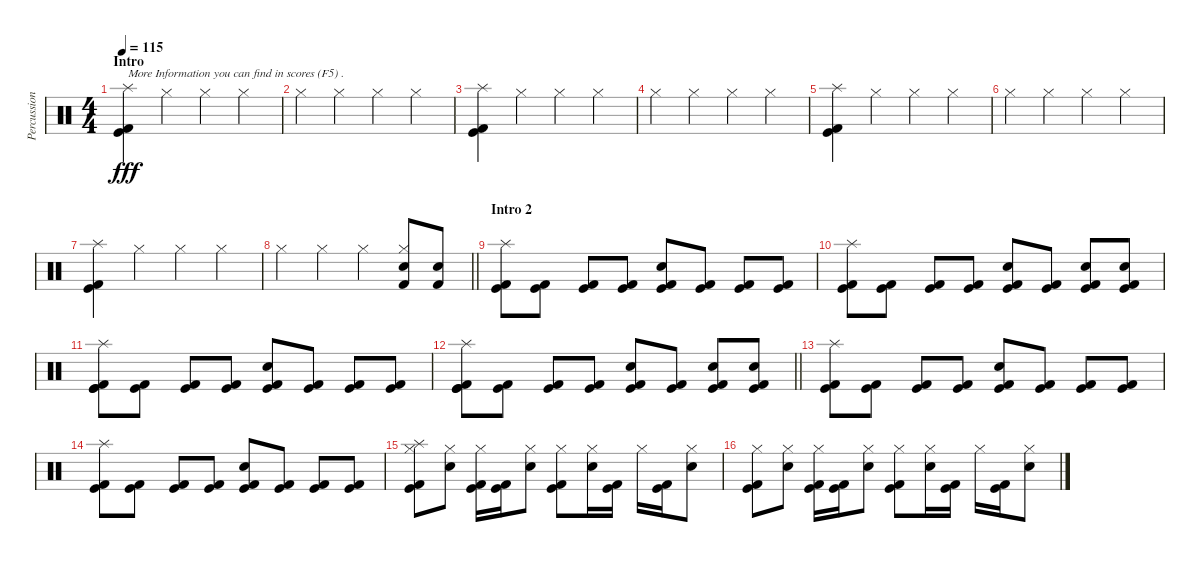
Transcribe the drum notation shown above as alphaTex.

\track ("Percussion" "Percussion") {instrument percussion}
\staff {score}
\articulation defaults
\ts (4 4)
\section ("" "Intro")
\tempo 115
\clef neutral
\ks c
("Splash (hit)" "Kick (hit) 2" "Kick (hit)").4{txt "More Information you can find in scores (F5) ." dy fff} "Hi-Hat (closed)".4 "Hi-Hat (closed)".4 "Hi-Hat (closed)".4 |
"Hi-Hat (closed)".4 "Hi-Hat (closed)".4 "Hi-Hat (closed)".4 "Hi-Hat (closed)".4 |
("Splash (hit)" "Kick (hit) 2" "Kick (hit)").4 "Hi-Hat (closed)".4 "Hi-Hat (closed)".4 "Hi-Hat (closed)".4 |
"Hi-Hat (closed)".4 "Hi-Hat (closed)".4 "Hi-Hat (closed)".4 "Hi-Hat (closed)".4 |
("Splash (hit)" "Kick (hit) 2" "Kick (hit)").4 "Hi-Hat (closed)".4 "Hi-Hat (closed)".4 "Hi-Hat (closed)".4 |
"Hi-Hat (closed)".4 "Hi-Hat (closed)".4 "Hi-Hat (closed)".4 "Hi-Hat (closed)".4 |
("Splash (hit)" "Kick (hit) 2" "Kick (hit)").4 "Hi-Hat (closed)".4 "Hi-Hat (closed)".4 "Hi-Hat (closed)".4 |
\barLineRight lightlight "Hi-Hat (closed)".4 "Hi-Hat (closed)".4 "Hi-Hat (closed)".4
("Hi-Hat (closed)" "Snare (hit) 2" "Kick (hit) 2").8 ("Snare (hit) 2" "Kick (hit) 2").8 |
\section ("" "Intro 2")
("Splash (hit)" "Kick (hit)" "Kick (hit) 2").8 ("Kick (hit)" "Kick (hit) 2").8 ("Kick (hit)" "Kick (hit) 2").8 ("Kick (hit)" "Kick (hit) 2").8 ("Snare (hit) 2" "Kick (hit)" "Kick (hit) 2").8 ("Kick (hit)" "Kick (hit) 2").8 ("Kick (hit)" "Kick (hit) 2").8 ("Kick (hit)" "Kick (hit) 2").8 |
("Splash (hit)" "Kick (hit)" "Kick (hit) 2").8 ("Kick (hit)" "Kick (hit) 2").8 ("Kick (hit)" "Kick (hit) 2").8 ("Kick (hit)" "Kick (hit) 2").8 ("Snare (hit) 2" "Kick (hit)" "Kick (hit) 2").8 ("Kick (hit)" "Kick (hit) 2").8 ("Snare (hit) 2" "Kick (hit)" "Kick (hit) 2").8 ("Snare (hit) 2" "Kick (hit)" "Kick (hit) 2").8 |
("Splash (hit)" "Kick (hit)" "Kick (hit)" "Kick (hit) 2").8 ("Kick (hit)" "Kick (hit) 2").8 ("Kick (hit)" "Kick (hit) 2").8 ("Kick (hit)" "Kick (hit) 2").8 ("Snare (hit) 2" "Kick (hit)" "Kick (hit) 2").8 ("Kick (hit)" "Kick (hit) 2").8 ("Kick (hit)" "Kick (hit) 2").8 ("Kick (hit)" "Kick (hit) 2").8 |
\barLineRight lightlight
("Splash (hit)" "Kick (hit)" "Kick (hit)" "Kick (hit) 2").8 ("Kick (hit)" "Kick (hit) 2").8 ("Kick (hit)" "Kick (hit) 2").8 ("Kick (hit)" "Kick (hit) 2").8 ("Snare (hit) 2" "Kick (hit)" "Kick (hit) 2").8 ("Kick (hit)" "Kick (hit) 2").8 ("Snare (hit) 2" "Kick (hit)" "Kick (hit) 2").8 ("Snare (hit) 2" "Kick (hit)" "Kick (hit) 2").8 |
("Splash (hit)" "Kick (hit)" "Kick (hit) 2").8 ("Kick (hit)" "Kick (hit) 2").8 ("Kick (hit)" "Kick (hit) 2").8 ("Kick (hit)" "Kick (hit) 2").8 ("Snare (hit) 2" "Kick (hit)" "Kick (hit) 2").8 ("Kick (hit)" "Kick (hit) 2").8 ("Kick (hit)" "Kick (hit) 2").8 ("Kick (hit)" "Kick (hit) 2").8 |
("Splash (hit)" "Kick (hit)" "Kick (hit) 2").8 ("Kick (hit)" "Kick (hit) 2").8 ("Kick (hit)" "Kick (hit) 2").8 ("Kick (hit)" "Kick (hit) 2").8 ("Snare (hit) 2" "Kick (hit)" "Kick (hit) 2").8 ("Kick (hit)" "Kick (hit) 2").8 ("Kick (hit)" "Kick (hit) 2").8 ("Kick (hit)" "Kick (hit) 2").8 |
("Splash (hit)" "Hi-Hat (closed)" "Kick (hit)" "Kick (hit) 2").8 ("Snare (hit) 2" "Hi-Hat (closed)").8 ("Hi-Hat (closed)" "Kick (hit)" "Kick (hit) 2").16 ("Kick (hit)" "Kick (hit) 2").16 ("Snare (hit) 2" "Hi-Hat (closed)").8 ("Hi-Hat (closed)" "Kick (hit)" "Kick (hit) 2").8 ("Snare (hit) 2" "Hi-Hat (closed)").16 ("Kick (hit)" "Kick (hit) 2").16 "Hi-Hat (closed)".16 ("Kick (hit)" "Kick (hit) 2").16 ("Snare (hit) 2" "Hi-Hat (closed)").8 |
("Hi-Hat (closed)" "Kick (hit)" "Kick (hit) 2").8 ("Snare (hit) 2" "Hi-Hat (closed)").8 ("Hi-Hat (closed)" "Kick (hit)" "Kick (hit) 2").16 ("Kick (hit)" "Kick (hit) 2").16 ("Snare (hit) 2" "Hi-Hat (closed)").8 ("Hi-Hat (closed)" "Kick (hit)" "Kick (hit) 2").8 ("Snare (hit) 2" "Hi-Hat (closed)").16 ("Kick (hit)" "Kick (hit) 2").16 "Hi-Hat (closed)".16 ("Kick (hit)" "Kick (hit) 2").16 ("Snare (hit) 2" "Hi-Hat (closed)").8
